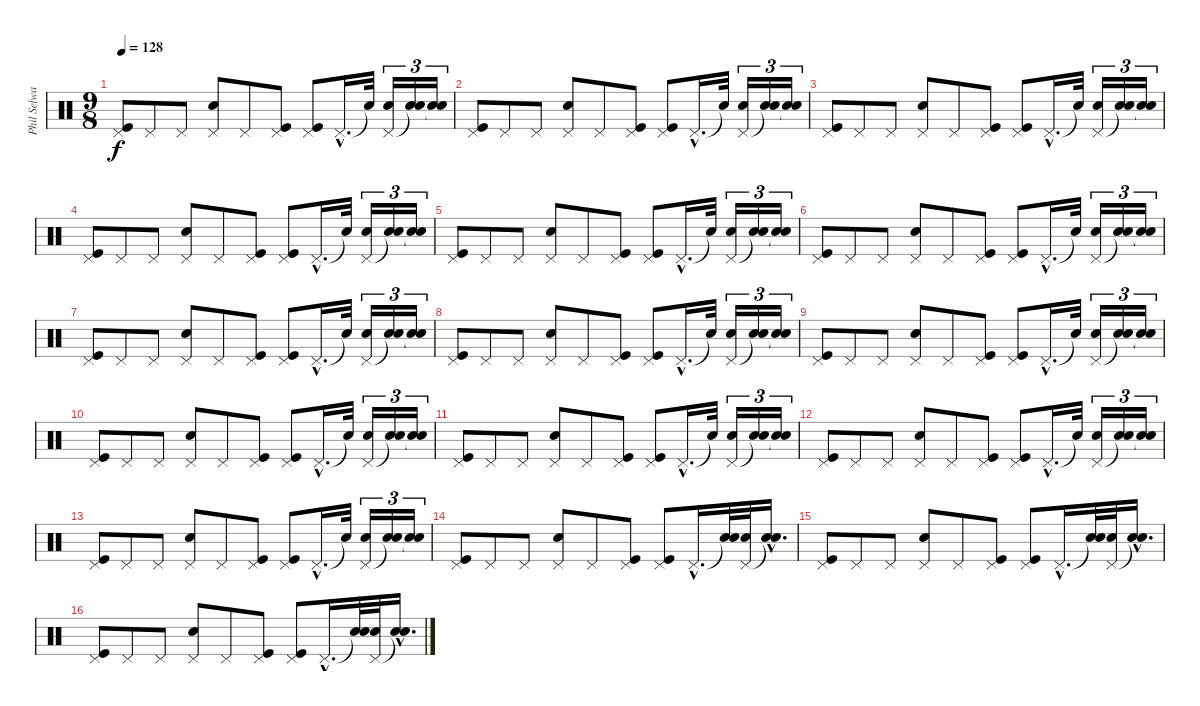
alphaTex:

\track ("Phil Selway - Drums" "Phil Selwa") {instrument percussion}
\staff {score}
\articulation defaults
\ts (9 8)
\tempo 128
\clef neutral
\ks c
("Pedal Hi-Hat (hit)" "Kick (hit)").8{dy f} "Pedal Hi-Hat (hit)".8 "Pedal Hi-Hat (hit)".8 ("Pedal Hi-Hat (hit)" "Snare (hit) 2").8 "Pedal Hi-Hat (hit)".8 ("Pedal Hi-Hat (hit)" "Kick (hit)").8 ("Pedal Hi-Hat (hit)" "Kick (hit)").8 "Pedal Hi-Hat (hit)"{hac}.16{d} "Snare (hit)"{t}.32 ("Pedal Hi-Hat (hit)" "Snare (hit) 2").16{tu (3 2)} ("Snare (hit)"{t} "Snare (hit) 2").16{tu (3 2)} ("Snare (hit)"{t} "Snare (hit) 2").16{tu (3 2)} |
("Pedal Hi-Hat (hit)" "Kick (hit)").8 "Pedal Hi-Hat (hit)".8 "Pedal Hi-Hat (hit)".8 ("Pedal Hi-Hat (hit)" "Snare (hit) 2").8 "Pedal Hi-Hat (hit)".8 ("Pedal Hi-Hat (hit)" "Kick (hit)").8 ("Pedal Hi-Hat (hit)" "Kick (hit)").8 "Pedal Hi-Hat (hit)"{hac}.16{d} "Snare (hit)"{t}.32 ("Pedal Hi-Hat (hit)" "Snare (hit) 2").16{tu (3 2)} ("Snare (hit)"{t} "Snare (hit) 2").16{tu (3 2)} ("Snare (hit)"{t} "Snare (hit) 2").16{tu (3 2)} |
("Pedal Hi-Hat (hit)" "Kick (hit)").8 "Pedal Hi-Hat (hit)".8 "Pedal Hi-Hat (hit)".8 ("Pedal Hi-Hat (hit)" "Snare (hit) 2").8 "Pedal Hi-Hat (hit)".8 ("Pedal Hi-Hat (hit)" "Kick (hit)").8 ("Pedal Hi-Hat (hit)" "Kick (hit)").8 "Pedal Hi-Hat (hit)"{hac}.16{d} "Snare (hit)"{t}.32 ("Pedal Hi-Hat (hit)" "Snare (hit) 2").16{tu (3 2)} ("Snare (hit)"{t} "Snare (hit) 2").16{tu (3 2)} ("Snare (hit)"{t} "Snare (hit) 2").16{tu (3 2)} |
("Pedal Hi-Hat (hit)" "Kick (hit)").8 "Pedal Hi-Hat (hit)".8 "Pedal Hi-Hat (hit)".8 ("Pedal Hi-Hat (hit)" "Snare (hit) 2").8 "Pedal Hi-Hat (hit)".8 ("Pedal Hi-Hat (hit)" "Kick (hit)").8 ("Pedal Hi-Hat (hit)" "Kick (hit)").8 "Pedal Hi-Hat (hit)"{hac}.16{d} "Snare (hit)"{t}.32 ("Pedal Hi-Hat (hit)" "Snare (hit) 2").16{tu (3 2)} ("Snare (hit)"{t} "Snare (hit) 2").16{tu (3 2)} ("Snare (hit)"{t} "Snare (hit) 2").16{tu (3 2)} |
("Pedal Hi-Hat (hit)" "Kick (hit)").8 "Pedal Hi-Hat (hit)".8 "Pedal Hi-Hat (hit)".8 ("Pedal Hi-Hat (hit)" "Snare (hit) 2").8 "Pedal Hi-Hat (hit)".8 ("Pedal Hi-Hat (hit)" "Kick (hit)").8 ("Pedal Hi-Hat (hit)" "Kick (hit)").8 "Pedal Hi-Hat (hit)"{hac}.16{d} "Snare (hit)"{t}.32 ("Pedal Hi-Hat (hit)" "Snare (hit) 2").16{tu (3 2)} ("Snare (hit)"{t} "Snare (hit) 2").16{tu (3 2)} ("Snare (hit)"{t} "Snare (hit) 2").16{tu (3 2)} |
("Pedal Hi-Hat (hit)" "Kick (hit)").8 "Pedal Hi-Hat (hit)".8 "Pedal Hi-Hat (hit)".8 ("Pedal Hi-Hat (hit)" "Snare (hit) 2").8 "Pedal Hi-Hat (hit)".8 ("Pedal Hi-Hat (hit)" "Kick (hit)").8 ("Pedal Hi-Hat (hit)" "Kick (hit)").8 "Pedal Hi-Hat (hit)"{hac}.16{d} "Snare (hit)"{t}.32 ("Pedal Hi-Hat (hit)" "Snare (hit) 2").16{tu (3 2)} ("Snare (hit)"{t} "Snare (hit) 2").16{tu (3 2)} ("Snare (hit)"{t} "Snare (hit) 2").16{tu (3 2)} |
("Pedal Hi-Hat (hit)" "Kick (hit)").8 "Pedal Hi-Hat (hit)".8 "Pedal Hi-Hat (hit)".8 ("Pedal Hi-Hat (hit)" "Snare (hit) 2").8 "Pedal Hi-Hat (hit)".8 ("Pedal Hi-Hat (hit)" "Kick (hit)").8 ("Pedal Hi-Hat (hit)" "Kick (hit)").8 "Pedal Hi-Hat (hit)"{hac}.16{d} "Snare (hit)"{t}.32 ("Pedal Hi-Hat (hit)" "Snare (hit) 2").16{tu (3 2)} ("Snare (hit)"{t} "Snare (hit) 2").16{tu (3 2)} ("Snare (hit)"{t} "Snare (hit) 2").16{tu (3 2)} |
("Pedal Hi-Hat (hit)" "Kick (hit)").8 "Pedal Hi-Hat (hit)".8 "Pedal Hi-Hat (hit)".8 ("Pedal Hi-Hat (hit)" "Snare (hit) 2").8 "Pedal Hi-Hat (hit)".8 ("Pedal Hi-Hat (hit)" "Kick (hit)").8 ("Pedal Hi-Hat (hit)" "Kick (hit)").8 "Pedal Hi-Hat (hit)"{hac}.16{d} "Snare (hit)"{t}.32 ("Pedal Hi-Hat (hit)" "Snare (hit) 2").16{tu (3 2)} ("Snare (hit)"{t} "Snare (hit) 2").16{tu (3 2)} ("Snare (hit)"{t} "Snare (hit) 2").16{tu (3 2)} |
("Pedal Hi-Hat (hit)" "Kick (hit)").8 "Pedal Hi-Hat (hit)".8 "Pedal Hi-Hat (hit)".8 ("Pedal Hi-Hat (hit)" "Snare (hit) 2").8 "Pedal Hi-Hat (hit)".8 ("Pedal Hi-Hat (hit)" "Kick (hit)").8 ("Pedal Hi-Hat (hit)" "Kick (hit)").8 "Pedal Hi-Hat (hit)"{hac}.16{d} "Snare (hit)"{t}.32 ("Pedal Hi-Hat (hit)" "Snare (hit) 2").16{tu (3 2)} ("Snare (hit)"{t} "Snare (hit) 2").16{tu (3 2)} ("Snare (hit)"{t} "Snare (hit) 2").16{tu (3 2)} |
("Pedal Hi-Hat (hit)" "Kick (hit)").8 "Pedal Hi-Hat (hit)".8 "Pedal Hi-Hat (hit)".8 ("Pedal Hi-Hat (hit)" "Snare (hit) 2").8 "Pedal Hi-Hat (hit)".8 ("Pedal Hi-Hat (hit)" "Kick (hit)").8 ("Pedal Hi-Hat (hit)" "Kick (hit)").8 "Pedal Hi-Hat (hit)"{hac}.16{d} "Snare (hit)"{t}.32 ("Pedal Hi-Hat (hit)" "Snare (hit) 2").16{tu (3 2)} ("Snare (hit)"{t} "Snare (hit) 2").16{tu (3 2)} ("Snare (hit)"{t} "Snare (hit) 2").16{tu (3 2)} |
("Pedal Hi-Hat (hit)" "Kick (hit)").8 "Pedal Hi-Hat (hit)".8 "Pedal Hi-Hat (hit)".8 ("Pedal Hi-Hat (hit)" "Snare (hit) 2").8 "Pedal Hi-Hat (hit)".8 ("Pedal Hi-Hat (hit)" "Kick (hit)").8 ("Pedal Hi-Hat (hit)" "Kick (hit)").8 "Pedal Hi-Hat (hit)"{hac}.16{d} "Snare (hit)"{t}.32 ("Pedal Hi-Hat (hit)" "Snare (hit) 2").16{tu (3 2)} ("Snare (hit)"{t} "Snare (hit) 2").16{tu (3 2)} ("Snare (hit)"{t} "Snare (hit) 2").16{tu (3 2)} |
("Pedal Hi-Hat (hit)" "Kick (hit)").8 "Pedal Hi-Hat (hit)".8 "Pedal Hi-Hat (hit)".8 ("Pedal Hi-Hat (hit)" "Snare (hit) 2").8 "Pedal Hi-Hat (hit)".8 ("Pedal Hi-Hat (hit)" "Kick (hit)").8 ("Pedal Hi-Hat (hit)" "Kick (hit)").8 "Pedal Hi-Hat (hit)"{hac}.16{d} "Snare (hit)"{t}.32 ("Pedal Hi-Hat (hit)" "Snare (hit) 2").16{tu (3 2)} ("Snare (hit)"{t} "Snare (hit) 2").16{tu (3 2)} ("Snare (hit)"{t} "Snare (hit) 2").16{tu (3 2)} |
("Pedal Hi-Hat (hit)" "Kick (hit)").8 "Pedal Hi-Hat (hit)".8 "Pedal Hi-Hat (hit)".8 ("Pedal Hi-Hat (hit)" "Snare (hit) 2").8 "Pedal Hi-Hat (hit)".8 ("Pedal Hi-Hat (hit)" "Kick (hit)").8 ("Pedal Hi-Hat (hit)" "Kick (hit)").8 "Pedal Hi-Hat (hit)"{hac}.16{d} "Snare (hit)"{t}.32 ("Pedal Hi-Hat (hit)" "Snare (hit) 2").16{tu (3 2)} ("Snare (hit)"{t} "Snare (hit) 2").16{tu (3 2)} ("Snare (hit)"{t} "Snare (hit) 2").16{tu (3 2)} |
("Pedal Hi-Hat (hit)" "Kick (hit)").8 "Pedal Hi-Hat (hit)".8 "Pedal Hi-Hat (hit)".8 ("Pedal Hi-Hat (hit)" "Snare (hit) 2").8 "Pedal Hi-Hat (hit)".8 ("Pedal Hi-Hat (hit)" "Kick (hit)").8 ("Pedal Hi-Hat (hit)" "Kick (hit)").8 "Pedal Hi-Hat (hit)"{hac}.16{d} ("Snare (hit)"{t} "Snare (hit) 2").32 ("Pedal Hi-Hat (hit)" "Snare (hit) 2").32 ("Snare (hit)"{hac t} "Snare (hit) 2"{hac}).16{d} |
("Pedal Hi-Hat (hit)" "Kick (hit)").8 "Pedal Hi-Hat (hit)".8 "Pedal Hi-Hat (hit)".8 ("Pedal Hi-Hat (hit)" "Snare (hit) 2").8 "Pedal Hi-Hat (hit)".8 ("Pedal Hi-Hat (hit)" "Kick (hit)").8 ("Pedal Hi-Hat (hit)" "Kick (hit)").8 "Pedal Hi-Hat (hit)"{hac}.16{d} ("Snare (hit)"{t} "Snare (hit) 2").32 ("Pedal Hi-Hat (hit)" "Snare (hit) 2").32 ("Snare (hit)"{hac t} "Snare (hit) 2"{hac}).16{d} |
("Pedal Hi-Hat (hit)" "Kick (hit)").8 "Pedal Hi-Hat (hit)".8 "Pedal Hi-Hat (hit)".8 ("Pedal Hi-Hat (hit)" "Snare (hit) 2").8 "Pedal Hi-Hat (hit)".8 ("Pedal Hi-Hat (hit)" "Kick (hit)").8 ("Pedal Hi-Hat (hit)" "Kick (hit)").8 "Pedal Hi-Hat (hit)"{hac}.16{d} ("Snare (hit)"{t} "Snare (hit) 2").32 ("Pedal Hi-Hat (hit)" "Snare (hit) 2").32 ("Snare (hit)"{hac t} "Snare (hit) 2"{hac}).16{d}
